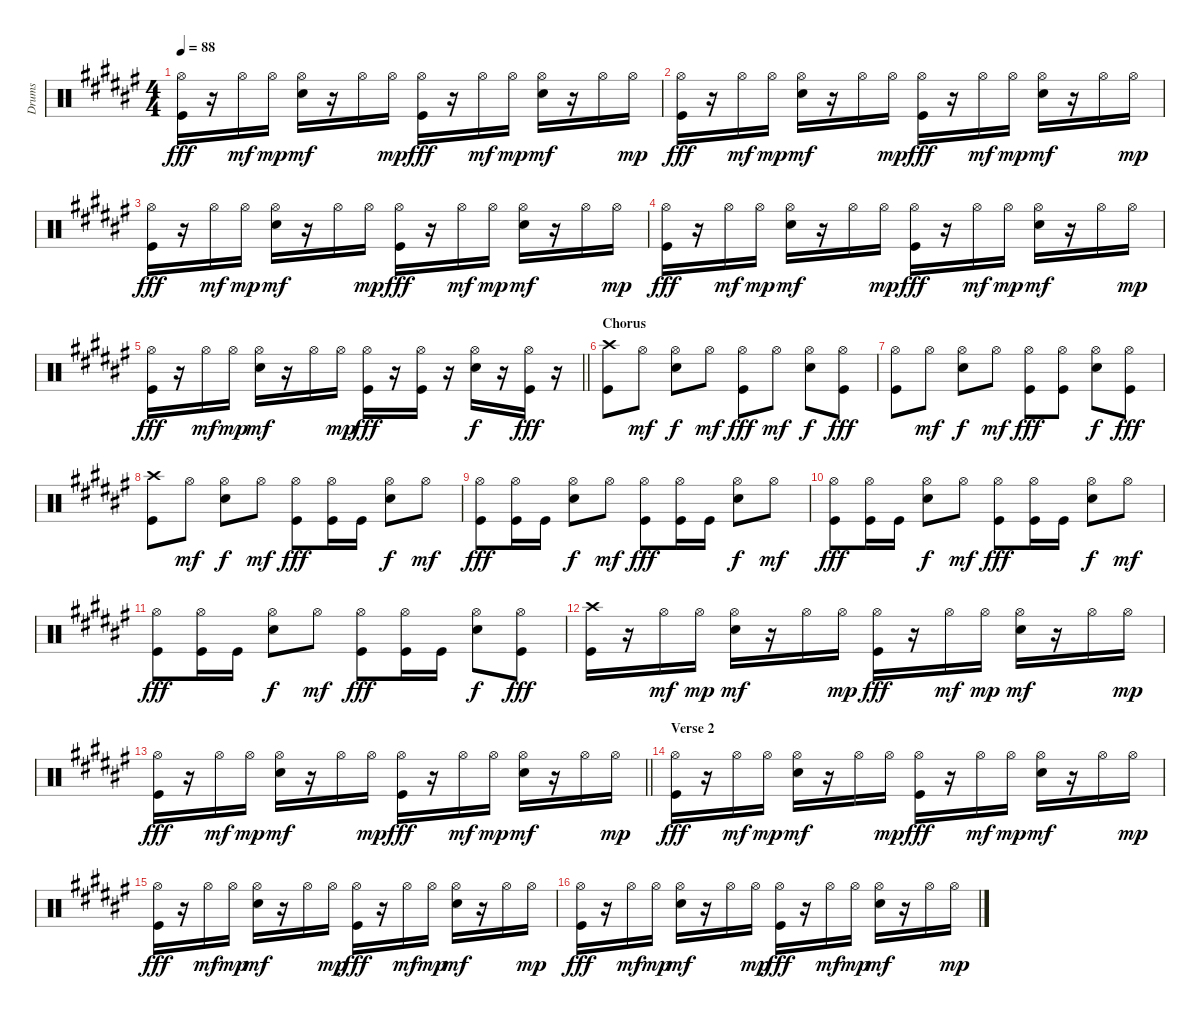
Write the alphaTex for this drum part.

\track ("Drums" "Drums") {instrument percussion}
\staff {score}
\articulation defaults
\ts (4 4)
\tempo 88
\clef neutral
\ks f#
("Hi-Hat (open)" "Kick (hit)").16{dy fff} r.16 "Hi-Hat (open)".16{dy mf} "Hi-Hat (open)".16{dy mp} ("Hi-Hat (open)" "Snare (hit) 2").16{dy mf} r.16 "Hi-Hat (open)".16 "Hi-Hat (open)".16{dy mp} ("Hi-Hat (open)" "Kick (hit)").16{dy fff} r.16 "Hi-Hat (open)".16{dy mf} "Hi-Hat (open)".16{dy mp} ("Hi-Hat (open)" "Snare (hit) 2").16{dy mf} r.16 "Hi-Hat (open)".16 "Hi-Hat (open)".16{dy mp} |
("Hi-Hat (open)" "Kick (hit)").16{dy fff} r.16 "Hi-Hat (open)".16{dy mf} "Hi-Hat (open)".16{dy mp} ("Hi-Hat (open)" "Snare (hit) 2").16{dy mf} r.16 "Hi-Hat (open)".16 "Hi-Hat (open)".16{dy mp} ("Hi-Hat (open)" "Kick (hit)").16{dy fff} r.16 "Hi-Hat (open)".16{dy mf} "Hi-Hat (open)".16{dy mp} ("Hi-Hat (open)" "Snare (hit) 2").16{dy mf} r.16 "Hi-Hat (open)".16 "Hi-Hat (open)".16{dy mp} |
("Hi-Hat (open)" "Kick (hit)").16{dy fff} r.16 "Hi-Hat (open)".16{dy mf} "Hi-Hat (open)".16{dy mp} ("Hi-Hat (open)" "Snare (hit) 2").16{dy mf} r.16 "Hi-Hat (open)".16 "Hi-Hat (open)".16{dy mp} ("Hi-Hat (open)" "Kick (hit)").16{dy fff} r.16 "Hi-Hat (open)".16{dy mf} "Hi-Hat (open)".16{dy mp} ("Hi-Hat (open)" "Snare (hit) 2").16{dy mf} r.16 "Hi-Hat (open)".16 "Hi-Hat (open)".16{dy mp} |
("Hi-Hat (open)" "Kick (hit)").16{dy fff} r.16 "Hi-Hat (open)".16{dy mf} "Hi-Hat (open)".16{dy mp} ("Hi-Hat (open)" "Snare (hit) 2").16{dy mf} r.16 "Hi-Hat (open)".16 "Hi-Hat (open)".16{dy mp} ("Hi-Hat (open)" "Kick (hit)").16{dy fff} r.16 "Hi-Hat (open)".16{dy mf} "Hi-Hat (open)".16{dy mp} ("Hi-Hat (open)" "Snare (hit) 2").16{dy mf} r.16 "Hi-Hat (open)".16 "Hi-Hat (open)".16{dy mp} |
\barLineRight lightlight
("Hi-Hat (open)" "Kick (hit)").16{dy fff} r.16 "Hi-Hat (open)".16{dy mf} "Hi-Hat (open)".16{dy mp} ("Hi-Hat (open)" "Snare (hit) 2").16{dy mf} r.16 "Hi-Hat (open)".16 "Hi-Hat (open)".16{dy mp} ("Hi-Hat (open)" "Kick (hit)").16{dy fff} r.16 ("Hi-Hat (open)" "Kick (hit)").16 r.16 ("Hi-Hat (open)" "Snare (hit) 2").16{dy f} r.16 ("Hi-Hat (open)" "Kick (hit)").16{dy fff} r.16 |
\section ("" "Chorus")
("Crash high (hit)" "Kick (hit)").8 "Hi-Hat (open)".8{dy mf} ("Hi-Hat (open)" "Snare (hit) 2").8{dy f} "Hi-Hat (open)".8{dy mf} ("Hi-Hat (open)" "Kick (hit)").8{dy fff} "Hi-Hat (open)".8{dy mf} ("Hi-Hat (open)" "Snare (hit) 2").8{dy f} ("Hi-Hat (open)" "Kick (hit)").8{dy fff} |
("Hi-Hat (open)" "Kick (hit)").8 "Hi-Hat (open)".8{dy mf} ("Hi-Hat (open)" "Snare (hit) 2").8{dy f} "Hi-Hat (open)".8{dy mf} ("Hi-Hat (open)" "Kick (hit)").8{dy fff} ("Hi-Hat (open)" "Kick (hit)").8 ("Hi-Hat (open)" "Snare (hit) 2").8{dy f} ("Hi-Hat (open)" "Kick (hit)").8{dy fff} |
("Crash high (hit)" "Kick (hit)").8 "Hi-Hat (open)".8{dy mf} ("Hi-Hat (open)" "Snare (hit) 2").8{dy f} "Hi-Hat (open)".8{dy mf} ("Hi-Hat (open)" "Kick (hit)").8{dy fff} ("Hi-Hat (open)" "Kick (hit)").16 "Kick (hit)".16 ("Hi-Hat (open)" "Snare (hit) 2").8{dy f} "Hi-Hat (open)".8{dy mf} |
("Hi-Hat (open)" "Kick (hit)").8{dy fff} ("Hi-Hat (open)" "Kick (hit)").16 "Kick (hit)".16 ("Hi-Hat (open)" "Snare (hit) 2").8{dy f} "Hi-Hat (open)".8{dy mf} ("Hi-Hat (open)" "Kick (hit)").8{dy fff} ("Hi-Hat (open)" "Kick (hit)").16 "Kick (hit)".16 ("Hi-Hat (open)" "Snare (hit) 2").8{dy f} "Hi-Hat (open)".8{dy mf} |
("Hi-Hat (open)" "Kick (hit)").8{dy fff} ("Hi-Hat (open)" "Kick (hit)").16 "Kick (hit)".16 ("Hi-Hat (open)" "Snare (hit) 2").8{dy f} "Hi-Hat (open)".8{dy mf} ("Hi-Hat (open)" "Kick (hit)").8{dy fff} ("Hi-Hat (open)" "Kick (hit)").16 "Kick (hit)".16 ("Hi-Hat (open)" "Snare (hit) 2").8{dy f} "Hi-Hat (open)".8{dy mf} |
("Hi-Hat (open)" "Kick (hit)").8{dy fff} ("Hi-Hat (open)" "Kick (hit)").16 "Kick (hit)".16 ("Hi-Hat (open)" "Snare (hit) 2").8{dy f} "Hi-Hat (open)".8{dy mf} ("Hi-Hat (open)" "Kick (hit)").8{dy fff} ("Hi-Hat (open)" "Kick (hit)").16 "Kick (hit)".16 ("Hi-Hat (open)" "Snare (hit) 2").8{dy f} ("Hi-Hat (open)" "Kick (hit)").8{dy fff} |
("Crash high (hit)" "Kick (hit)").16 r.16 "Hi-Hat (open)".16{dy mf} "Hi-Hat (open)".16{dy mp} ("Hi-Hat (open)" "Snare (hit) 2").16{dy mf} r.16 "Hi-Hat (open)".16 "Hi-Hat (open)".16{dy mp} ("Hi-Hat (open)" "Kick (hit)").16{dy fff} r.16 "Hi-Hat (open)".16{dy mf} "Hi-Hat (open)".16{dy mp} ("Hi-Hat (open)" "Snare (hit) 2").16{dy mf} r.16 "Hi-Hat (open)".16 "Hi-Hat (open)".16{dy mp} |
\barLineRight lightlight
("Hi-Hat (open)" "Kick (hit)").16{dy fff} r.16 "Hi-Hat (open)".16{dy mf} "Hi-Hat (open)".16{dy mp} ("Hi-Hat (open)" "Snare (hit) 2").16{dy mf} r.16 "Hi-Hat (open)".16 "Hi-Hat (open)".16{dy mp} ("Hi-Hat (open)" "Kick (hit)").16{dy fff} r.16 "Hi-Hat (open)".16{dy mf} "Hi-Hat (open)".16{dy mp} ("Hi-Hat (open)" "Snare (hit) 2").16{dy mf} r.16 "Hi-Hat (open)".16 "Hi-Hat (open)".16{dy mp} |
\section ("" "Verse 2")
("Hi-Hat (open)" "Kick (hit)").16{dy fff} r.16 "Hi-Hat (open)".16{dy mf} "Hi-Hat (open)".16{dy mp} ("Hi-Hat (open)" "Snare (hit) 2").16{dy mf} r.16 "Hi-Hat (open)".16 "Hi-Hat (open)".16{dy mp} ("Hi-Hat (open)" "Kick (hit)").16{dy fff} r.16 "Hi-Hat (open)".16{dy mf} "Hi-Hat (open)".16{dy mp} ("Hi-Hat (open)" "Snare (hit) 2").16{dy mf} r.16 "Hi-Hat (open)".16 "Hi-Hat (open)".16{dy mp} |
("Hi-Hat (open)" "Kick (hit)").16{dy fff} r.16 "Hi-Hat (open)".16{dy mf} "Hi-Hat (open)".16{dy mp} ("Hi-Hat (open)" "Snare (hit) 2").16{dy mf} r.16 "Hi-Hat (open)".16 "Hi-Hat (open)".16{dy mp} ("Hi-Hat (open)" "Kick (hit)").16{dy fff} r.16 "Hi-Hat (open)".16{dy mf} "Hi-Hat (open)".16{dy mp} ("Hi-Hat (open)" "Snare (hit) 2").16{dy mf} r.16 "Hi-Hat (open)".16 "Hi-Hat (open)".16{dy mp} |
("Hi-Hat (open)" "Kick (hit)").16{dy fff} r.16 "Hi-Hat (open)".16{dy mf} "Hi-Hat (open)".16{dy mp} ("Hi-Hat (open)" "Snare (hit) 2").16{dy mf} r.16 "Hi-Hat (open)".16 "Hi-Hat (open)".16{dy mp} ("Hi-Hat (open)" "Kick (hit)").16{dy fff} r.16 "Hi-Hat (open)".16{dy mf} "Hi-Hat (open)".16{dy mp} ("Hi-Hat (open)" "Snare (hit) 2").16{dy mf} r.16 "Hi-Hat (open)".16 "Hi-Hat (open)".16{dy mp}
